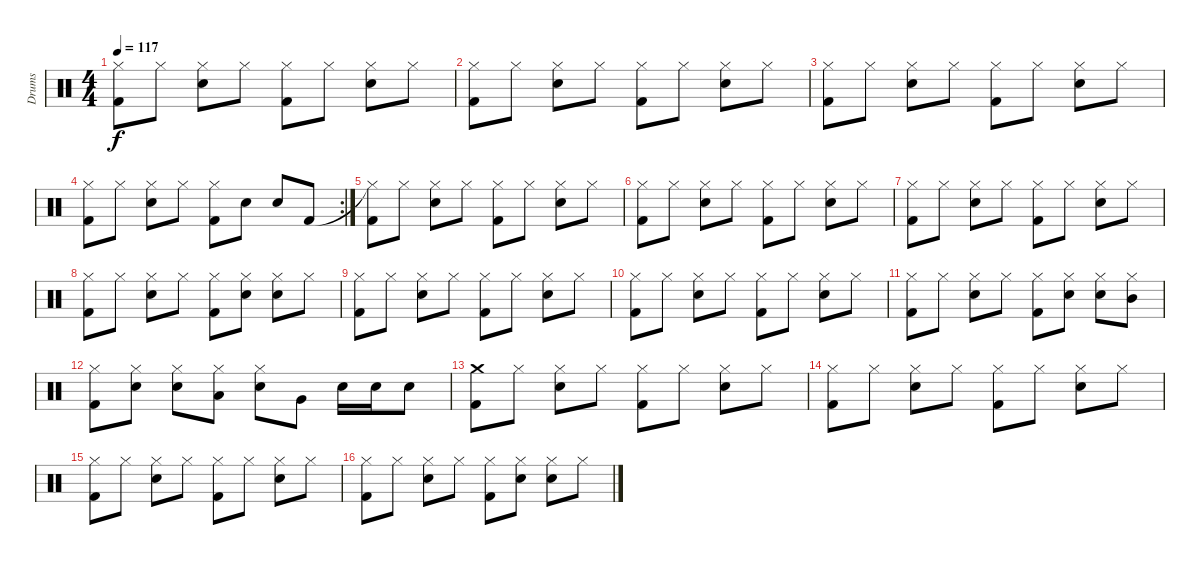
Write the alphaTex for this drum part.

\track ("Drums" "Drums") {instrument percussion}
\staff {score}
\articulation defaults
\ts (4 4)
\tempo 117
\clef neutral
\ks c
("Hi-Hat (closed)" "Kick (hit) 2").8{dy f} "Hi-Hat (closed)".8 ("Hi-Hat (closed)" "Snare (hit) 2").8 "Hi-Hat (closed)".8 ("Hi-Hat (closed)" "Kick (hit) 2").8 "Hi-Hat (closed)".8 ("Hi-Hat (closed)" "Snare (hit) 2").8 "Hi-Hat (closed)".8 |
("Hi-Hat (closed)" "Kick (hit) 2").8 "Hi-Hat (closed)".8 ("Hi-Hat (closed)" "Snare (hit) 2").8 "Hi-Hat (closed)".8 ("Hi-Hat (closed)" "Kick (hit) 2").8 "Hi-Hat (closed)".8 ("Hi-Hat (closed)" "Snare (hit) 2").8 "Hi-Hat (closed)".8 |
("Hi-Hat (closed)" "Kick (hit) 2").8 "Hi-Hat (closed)".8 ("Hi-Hat (closed)" "Snare (hit) 2").8 "Hi-Hat (closed)".8 ("Hi-Hat (closed)" "Kick (hit) 2").8 "Hi-Hat (closed)".8 ("Hi-Hat (closed)" "Snare (hit) 2").8 "Hi-Hat (closed)".8 |
\rc 2
("Hi-Hat (closed)" "Kick (hit) 2").8 "Hi-Hat (closed)".8 ("Hi-Hat (closed)" "Snare (hit) 2").8 "Hi-Hat (closed)".8 ("Hi-Hat (closed)" "Kick (hit) 2").8 "Electric Snare (hit)".8 "Electric Snare (hit)".8 "Kick (hit) 2".8 |
("Hi-Hat (closed)"{t} "Kick (hit) 2").8 "Hi-Hat (closed)".8 ("Hi-Hat (closed)" "Snare (hit) 2").8 "Hi-Hat (closed)".8 ("Hi-Hat (closed)" "Kick (hit) 2").8 "Hi-Hat (closed)".8 ("Hi-Hat (closed)" "Snare (hit) 2").8 "Hi-Hat (closed)".8 |
("Hi-Hat (closed)" "Kick (hit) 2").8 "Hi-Hat (closed)".8 ("Hi-Hat (closed)" "Snare (hit) 2").8 "Hi-Hat (closed)".8 ("Hi-Hat (closed)" "Kick (hit) 2").8 "Hi-Hat (closed)".8 ("Hi-Hat (closed)" "Snare (hit) 2").8 "Hi-Hat (closed)".8 |
("Hi-Hat (closed)" "Kick (hit) 2").8 "Hi-Hat (closed)".8 ("Hi-Hat (closed)" "Snare (hit) 2").8 "Hi-Hat (closed)".8 ("Hi-Hat (closed)" "Kick (hit) 2").8 "Hi-Hat (closed)".8 ("Hi-Hat (closed)" "Snare (hit) 2").8 "Hi-Hat (closed)".8 |
("Hi-Hat (closed)" "Kick (hit) 2").8 "Hi-Hat (closed)".8 ("Hi-Hat (closed)" "Snare (hit) 2").8 "Hi-Hat (closed)".8 ("Hi-Hat (closed)" "Kick (hit) 2").8 ("Hi-Hat (closed)" "Snare (hit) 2").8 ("Hi-Hat (closed)" "Snare (hit) 2").8 "Hi-Hat (closed)".8 |
("Hi-Hat (closed)" "Kick (hit) 2").8 "Hi-Hat (closed)".8 ("Hi-Hat (closed)" "Snare (hit) 2").8 "Hi-Hat (closed)".8 ("Hi-Hat (closed)" "Kick (hit) 2").8 "Hi-Hat (closed)".8 ("Hi-Hat (closed)" "Snare (hit) 2").8 "Hi-Hat (closed)".8 |
("Hi-Hat (closed)" "Kick (hit) 2").8 "Hi-Hat (closed)".8 ("Hi-Hat (closed)" "Snare (hit) 2").8 "Hi-Hat (closed)".8 ("Hi-Hat (closed)" "Kick (hit) 2").8 "Hi-Hat (closed)".8 ("Hi-Hat (closed)" "Snare (hit) 2").8 "Hi-Hat (closed)".8 |
("Hi-Hat (closed)" "Kick (hit) 2").8 "Hi-Hat (closed)".8 ("Hi-Hat (closed)" "Snare (hit) 2").8 "Hi-Hat (closed)".8 ("Hi-Hat (closed)" "Kick (hit) 2").8 ("Hi-Hat (closed)" "Snare (hit) 2").8 ("Hi-Hat (closed)" "Snare (hit) 2").8 ("Hi-Hat (closed)" "Mid Tom (hit)").8 |
("Hi-Hat (closed)" "Kick (hit) 2").8 ("Hi-Hat (closed)" "Snare (hit) 2").8 ("Hi-Hat (closed)" "Snare (hit) 2").8 ("Hi-Hat (closed)" "Low Tom (hit)").8 ("Hi-Hat (closed)" "Electric Snare (hit)").8 "Very Low Tom (hit)".8 "Electric Snare (hit)".16 "Electric Snare (hit)".16 "Electric Snare (hit)".8 |
("Crash medium (hit)" "Kick (hit) 2").8 "Hi-Hat (closed)".8 ("Hi-Hat (closed)" "Snare (hit) 2").8 "Hi-Hat (closed)".8 ("Hi-Hat (closed)" "Kick (hit) 2").8 "Hi-Hat (closed)".8 ("Hi-Hat (closed)" "Snare (hit) 2").8 "Hi-Hat (closed)".8 |
("Hi-Hat (closed)" "Kick (hit) 2").8 "Hi-Hat (closed)".8 ("Hi-Hat (closed)" "Snare (hit) 2").8 "Hi-Hat (closed)".8 ("Hi-Hat (closed)" "Kick (hit) 2").8 "Hi-Hat (closed)".8 ("Hi-Hat (closed)" "Snare (hit) 2").8 "Hi-Hat (closed)".8 |
("Hi-Hat (closed)" "Kick (hit) 2").8 "Hi-Hat (closed)".8 ("Hi-Hat (closed)" "Snare (hit) 2").8 "Hi-Hat (closed)".8 ("Hi-Hat (closed)" "Kick (hit) 2").8 "Hi-Hat (closed)".8 ("Hi-Hat (closed)" "Snare (hit) 2").8 "Hi-Hat (closed)".8 |
("Hi-Hat (closed)" "Kick (hit) 2").8 "Hi-Hat (closed)".8 ("Hi-Hat (closed)" "Snare (hit) 2").8 "Hi-Hat (closed)".8 ("Hi-Hat (closed)" "Kick (hit) 2").8 ("Hi-Hat (closed)" "Snare (hit) 2").8 ("Hi-Hat (closed)" "Snare (hit) 2").8 "Hi-Hat (closed)".8
